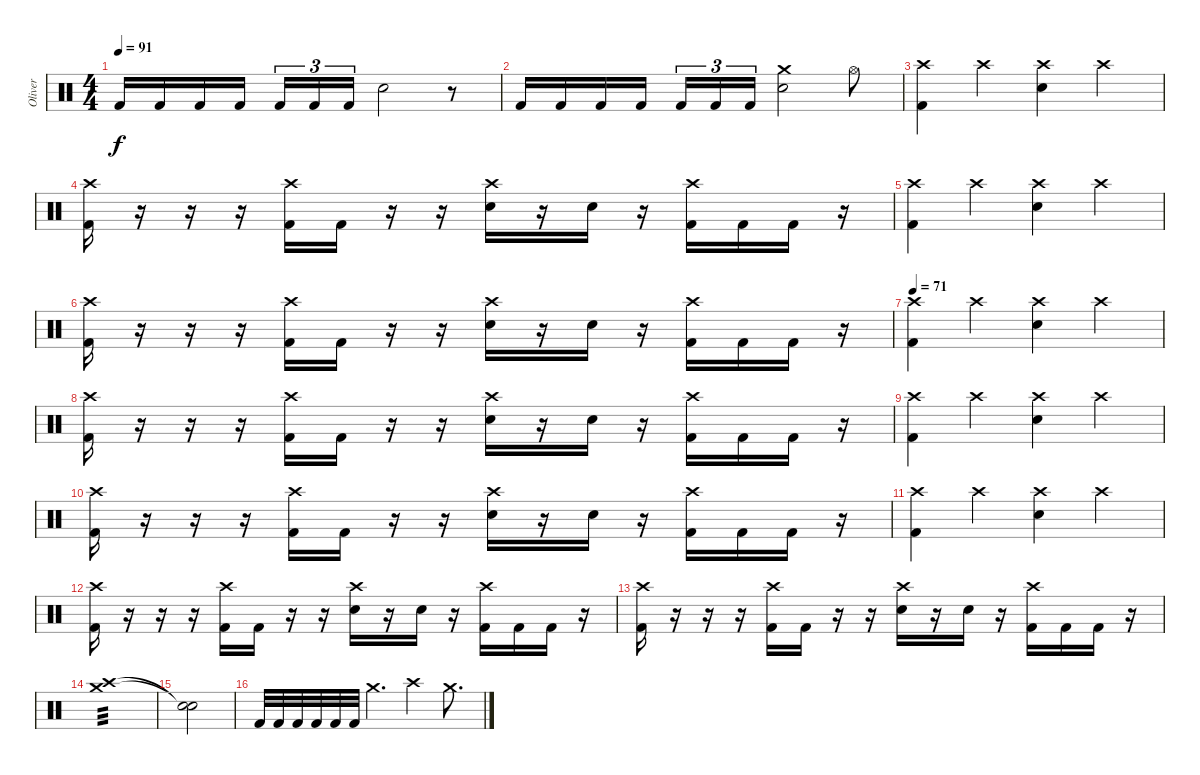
\track ("Oliver" "Oliver") {instrument percussion}
\staff {score}
\articulation defaults
\ts (4 4)
\tempo 91
\clef neutral
\ks c "Kick (hit) 2".16{dy f} "Kick (hit) 2".16 "Kick (hit) 2".16 "Kick (hit) 2".16 "Kick (hit) 2".16{tu (3 2)} "Kick (hit) 2".16{tu (3 2)} "Kick (hit) 2".16{tu (3 2)} "Snare (hit) 2".2
r.8 |
"Kick (hit) 2".16 "Kick (hit) 2".16 "Kick (hit) 2".16 "Kick (hit) 2".16 "Kick (hit) 2".16{tu (3 2)} "Kick (hit) 2".16{tu (3 2)} "Kick (hit) 2".16{tu (3 2)} ("Snare (hit) 2" "Crash medium (hit)").2 "Hi-Hat (open)".8 |
("Crash high (hit)" "Kick (hit) 2").4 "Crash high (hit)".4 ("Crash high (hit)" "Snare (hit) 2").4 "Crash high (hit)".4 |
("Crash high (hit)" "Kick (hit) 2").16 r.16 r.16 r.16 ("Crash high (hit)" "Kick (hit) 2").16 "Kick (hit) 2".16 r.16 r.16 ("Crash high (hit)" "Snare (hit) 2").16 r.16 "Snare (hit) 2".16 r.16 ("Crash high (hit)" "Kick (hit) 2").16 "Kick (hit) 2".16 "Kick (hit) 2".16 r.16 |
("Crash high (hit)" "Kick (hit) 2").4 "Crash high (hit)".4 ("Crash high (hit)" "Snare (hit) 2").4 "Crash high (hit)".4 |
("Crash high (hit)" "Kick (hit) 2").16 r.16 r.16 r.16 ("Crash high (hit)" "Kick (hit) 2").16 "Kick (hit) 2".16 r.16 r.16 ("Crash high (hit)" "Snare (hit) 2").16 r.16 "Snare (hit) 2".16 r.16 ("Crash high (hit)" "Kick (hit) 2").16 "Kick (hit) 2".16 "Kick (hit) 2".16 r.16 |
\tempo 71
("Crash high (hit)" "Kick (hit) 2").4 "Crash high (hit)".4 ("Crash high (hit)" "Snare (hit) 2").4 "Crash high (hit)".4 |
("Crash high (hit)" "Kick (hit) 2").16 r.16 r.16 r.16 ("Crash high (hit)" "Kick (hit) 2").16 "Kick (hit) 2".16 r.16 r.16 ("Crash high (hit)" "Snare (hit) 2").16 r.16 "Snare (hit) 2".16 r.16 ("Crash high (hit)" "Kick (hit) 2").16 "Kick (hit) 2".16 "Kick (hit) 2".16 r.16 |
("Crash high (hit)" "Kick (hit) 2").4 "Crash high (hit)".4 ("Crash high (hit)" "Snare (hit) 2").4 "Crash high (hit)".4 |
("Crash high (hit)" "Kick (hit) 2").16 r.16 r.16 r.16 ("Crash high (hit)" "Kick (hit) 2").16 "Kick (hit) 2".16 r.16 r.16 ("Crash high (hit)" "Snare (hit) 2").16 r.16 "Snare (hit) 2".16 r.16 ("Crash high (hit)" "Kick (hit) 2").16 "Kick (hit) 2".16 "Kick (hit) 2".16 r.16 |
("Crash high (hit)" "Kick (hit) 2").4 "Crash high (hit)".4 ("Crash high (hit)" "Snare (hit) 2").4 "Crash high (hit)".4 |
("Crash high (hit)" "Kick (hit) 2").16 r.16 r.16 r.16 ("Crash high (hit)" "Kick (hit) 2").16 "Kick (hit) 2".16 r.16 r.16 ("Crash high (hit)" "Snare (hit) 2").16 r.16 "Snare (hit) 2".16 r.16 ("Crash high (hit)" "Kick (hit) 2").16 "Kick (hit) 2".16 "Kick (hit) 2".16 r.16 |
("Crash high (hit)" "Kick (hit) 2").16 r.16 r.16 r.16 ("Crash high (hit)" "Kick (hit) 2").16 "Kick (hit) 2".16 r.16 r.16 ("Crash high (hit)" "Snare (hit) 2").16 r.16 "Snare (hit) 2".16 r.16 ("Crash high (hit)" "Kick (hit) 2").16 "Kick (hit) 2".16 "Kick (hit) 2".16 r.16 |
("Crash medium (hit)" "Crash high (hit)").1{tp 3} |
("Snare (hit)"{t} "Snare (hit)"{t}).2 |
"Kick (hit) 2".32 "Kick (hit) 2".32 "Kick (hit) 2".32 "Kick (hit) 2".32 "Kick (hit) 2".32 "Kick (hit) 2".32 "Crash medium (hit)".4{d} "Crash high (hit)".4 "Crash medium (hit)".8{d}
